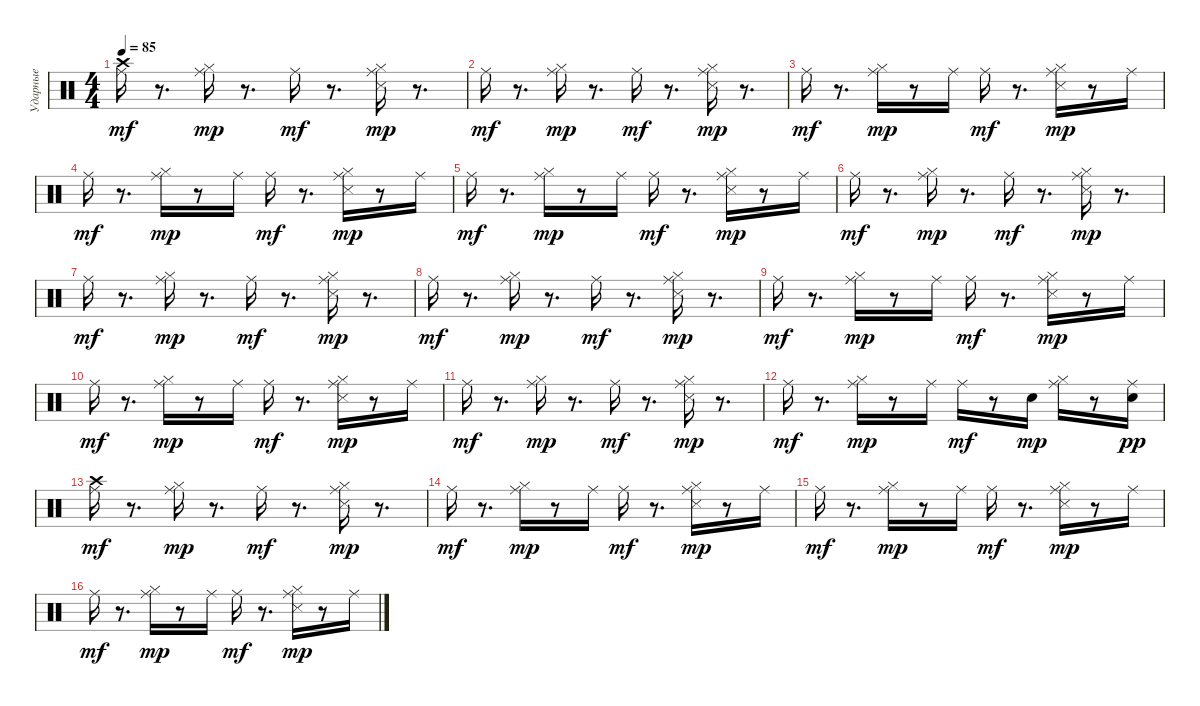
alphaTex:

\track ("Ударные" "Ударные") {instrument percussion}
\staff {score}
\articulation defaults
\ts (4 4)
\tempo 85
\clef neutral
\ks c
("Crash high (hit)" "Ride (middle)").16{dy mf} r.8{d} ("Ride (middle)" "Hi-Hat (closed)").16{dy mp} r.8{d} "Ride (middle)".16{dy mf} r.8{d} ("Ride (middle)" "Snare (side stick) 3" "Hi-Hat (closed)").16{dy mp} r.8{d} |
"Ride (middle)".16{dy mf} r.8{d} ("Ride (middle)" "Hi-Hat (closed)").16{dy mp} r.8{d} "Ride (middle)".16{dy mf} r.8{d} ("Ride (middle)" "Snare (side stick) 3" "Hi-Hat (closed)").16{dy mp} r.8{d} |
"Ride (middle)".16{dy mf} r.8{d} ("Ride (middle)" "Hi-Hat (closed)").16{dy mp} r.8 "Ride (middle)".16 "Ride (middle)".16{dy mf} r.8{d} ("Ride (middle)" "Snare (side stick) 3" "Hi-Hat (closed)").16{dy mp} r.8 "Ride (middle)".16 |
"Ride (middle)".16{dy mf} r.8{d} ("Ride (middle)" "Hi-Hat (closed)").16{dy mp} r.8 "Ride (middle)".16 "Ride (middle)".16{dy mf} r.8{d} ("Ride (middle)" "Snare (side stick) 3" "Hi-Hat (closed)").16{dy mp} r.8 "Ride (middle)".16 |
"Ride (middle)".16{dy mf} r.8{d} ("Ride (middle)" "Hi-Hat (closed)").16{dy mp} r.8 "Ride (middle)".16 "Ride (middle)".16{dy mf} r.8{d} ("Ride (middle)" "Snare (side stick) 3" "Hi-Hat (closed)").16{dy mp} r.8 "Ride (middle)".16 |
"Ride (middle)".16{dy mf} r.8{d} ("Ride (middle)" "Hi-Hat (closed)").16{dy mp} r.8{d} "Ride (middle)".16{dy mf} r.8{d} ("Ride (middle)" "Snare (side stick) 3" "Hi-Hat (closed)").16{dy mp} r.8{d} |
"Ride (middle)".16{dy mf} r.8{d} ("Ride (middle)" "Hi-Hat (closed)").16{dy mp} r.8{d} "Ride (middle)".16{dy mf} r.8{d} ("Ride (middle)" "Snare (side stick) 3" "Hi-Hat (closed)").16{dy mp} r.8{d} |
"Ride (middle)".16{dy mf} r.8{d} ("Ride (middle)" "Hi-Hat (closed)").16{dy mp} r.8{d} "Ride (middle)".16{dy mf} r.8{d} ("Ride (middle)" "Snare (side stick) 3" "Hi-Hat (closed)").16{dy mp} r.8{d} |
"Ride (middle)".16{dy mf} r.8{d} ("Ride (middle)" "Hi-Hat (closed)").16{dy mp} r.8 "Ride (middle)".16 "Ride (middle)".16{dy mf} r.8{d} ("Ride (middle)" "Snare (side stick) 3" "Hi-Hat (closed)").16{dy mp} r.8 "Ride (middle)".16 |
"Ride (middle)".16{dy mf} r.8{d} ("Ride (middle)" "Hi-Hat (closed)").16{dy mp} r.8 "Ride (middle)".16 "Ride (middle)".16{dy mf} r.8{d} ("Ride (middle)" "Snare (side stick) 3" "Hi-Hat (closed)").16{dy mp} r.8 "Ride (middle)".16 |
"Ride (middle)".16{dy mf} r.8{d} ("Ride (middle)" "Hi-Hat (closed)").16{dy mp} r.8{d} "Ride (middle)".16{dy mf} r.8{d} ("Ride (middle)" "Snare (side stick) 3" "Hi-Hat (closed)").16{dy mp} r.8{d} |
"Ride (middle)".16{dy mf} r.8{d} ("Ride (middle)" "Hi-Hat (closed)").16{dy mp} r.8 "Ride (middle)".16 "Ride (middle)".16{dy mf} r.8 "Snare (hit) 2".16{dy mp} ("Ride (middle)" "Hi-Hat (closed)").16 r.8 ("Ride (middle)" "Snare (hit) 2").16{dy pp} |
("Crash high (hit)" "Ride (middle)").16{dy mf} r.8{d} ("Ride (middle)" "Hi-Hat (closed)").16{dy mp} r.8{d} "Ride (middle)".16{dy mf} r.8{d} ("Ride (middle)" "Snare (side stick) 3" "Hi-Hat (closed)").16{dy mp} r.8{d} |
"Ride (middle)".16{dy mf} r.8{d} ("Ride (middle)" "Hi-Hat (closed)").16{dy mp} r.8 "Ride (middle)".16 "Ride (middle)".16{dy mf} r.8{d} ("Ride (middle)" "Snare (side stick) 3" "Hi-Hat (closed)").16{dy mp} r.8 "Ride (middle)".16 |
"Ride (middle)".16{dy mf} r.8{d} ("Ride (middle)" "Hi-Hat (closed)").16{dy mp} r.8 "Ride (middle)".16 "Ride (middle)".16{dy mf} r.8{d} ("Ride (middle)" "Snare (side stick) 3" "Hi-Hat (closed)").16{dy mp} r.8 "Ride (middle)".16 |
"Ride (middle)".16{dy mf} r.8{d} ("Ride (middle)" "Hi-Hat (closed)").16{dy mp} r.8 "Ride (middle)".16 "Ride (middle)".16{dy mf} r.8{d} ("Ride (middle)" "Snare (side stick) 3" "Hi-Hat (closed)").16{dy mp} r.8 "Ride (middle)".16
